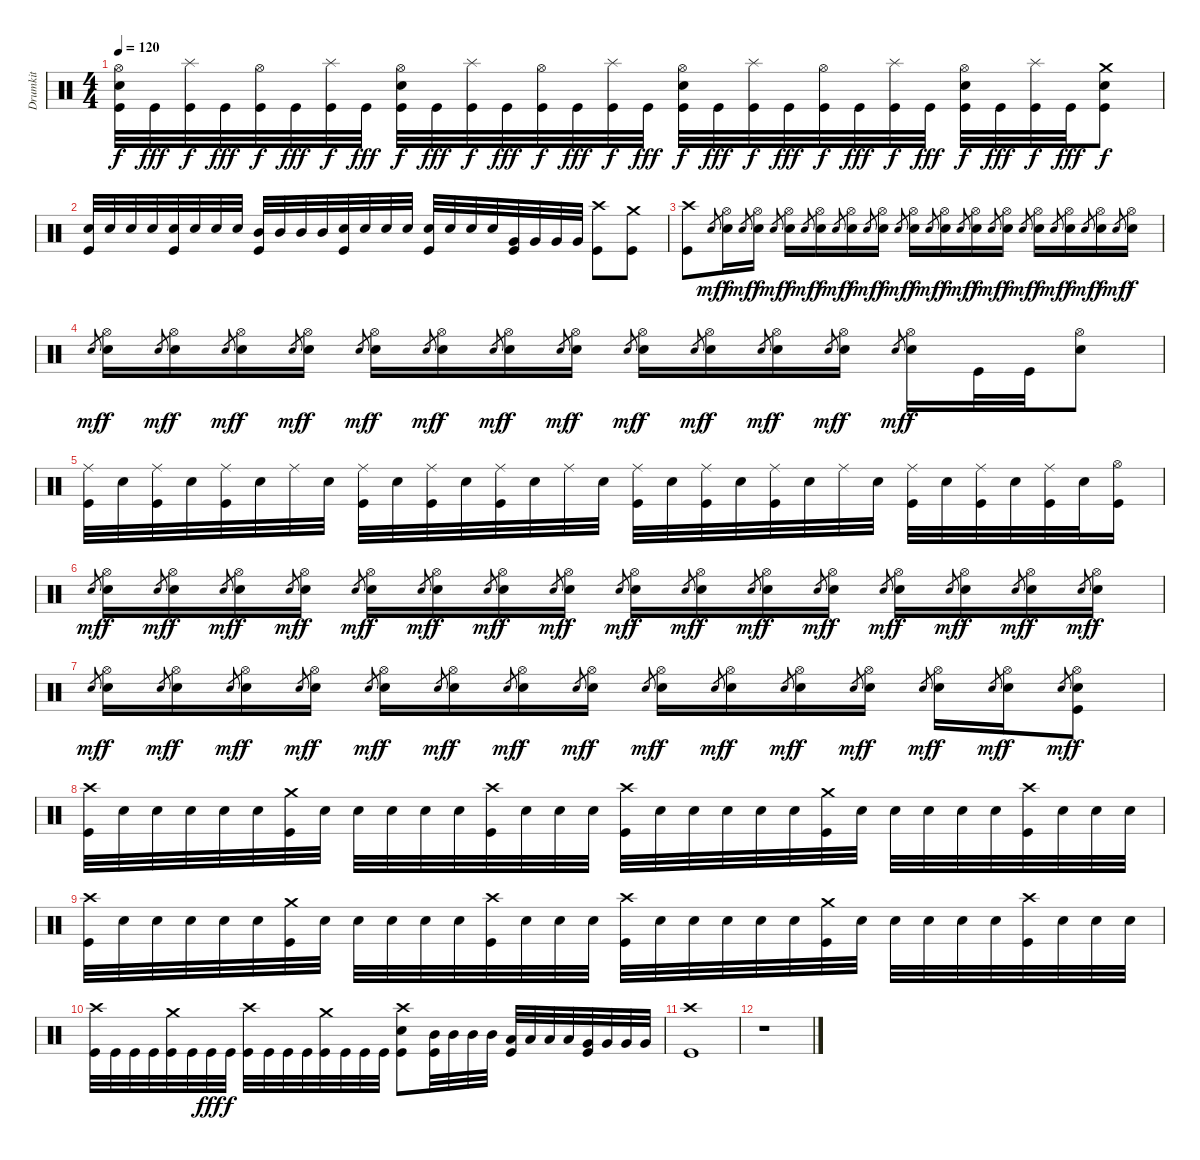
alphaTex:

\track ("Drumkit" "Drumkit") {instrument percussion}
\staff {score}
\articulation defaults
\ts (4 4)
\tempo 120
\clef neutral
\ks c
("Hi-Hat (open)" "Snare (hit) 2" "Kick (hit)").32{dy f} "Kick (hit)".32{dy fff} ("Splash (hit)" "Kick (hit)").32{dy f} "Kick (hit)".32{dy fff} ("Hi-Hat (open)" "Kick (hit)").32{dy f} "Kick (hit)".32{dy fff} ("Splash (hit)" "Kick (hit)").32{dy f} "Kick (hit)".32{dy fff} ("Hi-Hat (open)" "Snare (hit) 2" "Kick (hit)").32{dy f} "Kick (hit)".32{dy fff} ("Splash (hit)" "Kick (hit)").32{dy f} "Kick (hit)".32{dy fff} ("Hi-Hat (open)" "Kick (hit)").32{dy f} "Kick (hit)".32{dy fff} ("Splash (hit)" "Kick (hit)").32{dy f} "Kick (hit)".32{dy fff} ("Hi-Hat (open)" "Snare (hit) 2" "Kick (hit)").32{dy f} "Kick (hit)".32{dy fff} ("Splash (hit)" "Kick (hit)").32{dy f} "Kick (hit)".32{dy fff} ("Hi-Hat (open)" "Kick (hit)").32{dy f} "Kick (hit)".32{dy fff} ("Splash (hit)" "Kick (hit)").32{dy f} "Kick (hit)".32{dy fff} ("Hi-Hat (open)" "Snare (hit) 2" "Kick (hit)").32{dy f} "Kick (hit)".32{dy fff} ("Splash (hit)" "Kick (hit)").32{dy f} "Kick (hit)".32{dy fff} ("Crash medium (hit)" "Snare (hit) 2" "Kick (hit)").8{dy f} |
("Snare (hit) 2" "Kick (hit)").32 "Snare (hit) 2".32 "Snare (hit) 2".32 "Snare (hit) 2".32 ("Snare (hit) 2" "Kick (hit)").32 "Snare (hit) 2".32 "Snare (hit) 2".32 "Snare (hit) 2".32 ("Mid Tom (hit)" "Kick (hit)").32 "Mid Tom (hit)".32 "Mid Tom (hit)".32 "Mid Tom (hit)".32 ("Snare (hit) 2" "Kick (hit)").32 "Snare (hit) 2".32 "Snare (hit) 2".32 "Snare (hit) 2".32 ("Snare (hit) 2" "Kick (hit)").32 "Snare (hit) 2".32 "Snare (hit) 2".32 "Snare (hit) 2".32 ("Very Low Tom (hit)" "Kick (hit)").32 "Very Low Tom (hit)".32 "Very Low Tom (hit)".32 "Very Low Tom (hit)".32 ("Crash high (hit)" "Kick (hit)").8 ("Crash medium (hit)" "Kick (hit)").8 |
("Crash high (hit)" "Kick (hit)").8 "Snare (hit)".8{gr dy mf} ("Hi-Hat (open)" "Snare (hit) 2").16{dy f} "Snare (hit)".8{gr dy mf} ("Hi-Hat (open)" "Snare (hit) 2").16{dy f} "Snare (hit)".8{gr dy mf} ("Hi-Hat (open)" "Snare (hit) 2").16{dy f} "Snare (hit)".8{gr dy mf} ("Hi-Hat (open)" "Snare (hit) 2").16{dy f} "Snare (hit)".8{gr dy mf} ("Hi-Hat (open)" "Snare (hit) 2").16{dy f} "Snare (hit)".8{gr dy mf} ("Hi-Hat (open)" "Snare (hit) 2").16{dy f} "Snare (hit)".8{gr dy mf} ("Hi-Hat (open)" "Snare (hit) 2").16{dy f} "Snare (hit)".8{gr dy mf} ("Hi-Hat (open)" "Snare (hit) 2").16{dy f} "Snare (hit)".8{gr dy mf} ("Hi-Hat (open)" "Snare (hit) 2").16{dy f} "Snare (hit)".8{gr dy mf} ("Hi-Hat (open)" "Snare (hit) 2").16{dy f} "Snare (hit)".8{gr dy mf} ("Hi-Hat (open)" "Snare (hit) 2").16{dy f} "Snare (hit)".8{gr dy mf} ("Hi-Hat (open)" "Snare (hit) 2").16{dy f} "Snare (hit)".8{gr dy mf} ("Hi-Hat (open)" "Snare (hit) 2").16{dy f} "Snare (hit)".8{gr dy mf} ("Hi-Hat (open)" "Snare (hit) 2").16{dy f} |
"Snare (hit)".8{gr dy mf} ("Hi-Hat (open)" "Snare (hit) 2").16{dy f} "Snare (hit)".8{gr dy mf} ("Hi-Hat (open)" "Snare (hit) 2").16{dy f} "Snare (hit)".8{gr dy mf} ("Hi-Hat (open)" "Snare (hit) 2").16{dy f} "Snare (hit)".8{gr dy mf} ("Hi-Hat (open)" "Snare (hit) 2").16{dy f} "Snare (hit)".8{gr dy mf} ("Hi-Hat (open)" "Snare (hit) 2").16{dy f} "Snare (hit)".8{gr dy mf} ("Hi-Hat (open)" "Snare (hit) 2").16{dy f} "Snare (hit)".8{gr dy mf} ("Hi-Hat (open)" "Snare (hit) 2").16{dy f} "Snare (hit)".8{gr dy mf} ("Hi-Hat (open)" "Snare (hit) 2").16{dy f} "Snare (hit)".8{gr dy mf} ("Hi-Hat (open)" "Snare (hit) 2").16{dy f} "Snare (hit)".8{gr dy mf} ("Hi-Hat (open)" "Snare (hit) 2").16{dy f} "Snare (hit)".8{gr dy mf} ("Hi-Hat (open)" "Snare (hit) 2").16{dy f} "Snare (hit)".8{gr dy mf} ("Hi-Hat (open)" "Snare (hit) 2").16{dy f} "Snare (hit)".8{gr dy mf} ("Hi-Hat (open)" "Snare (hit) 2").16{dy f} "Kick (hit)".32 "Kick (hit)".32 ("Hi-Hat (open)" "Snare (hit) 2").8 |
("Ride (middle)" "Kick (hit)").32 "Snare (hit) 2".32 ("Ride (middle)" "Kick (hit)").32 "Snare (hit) 2".32 ("Ride (middle)" "Kick (hit)").32 "Snare (hit) 2".32 "Ride (middle)".32 "Snare (hit) 2".32 ("Ride (middle)" "Kick (hit)").32 "Snare (hit) 2".32 ("Ride (middle)" "Kick (hit)").32 "Snare (hit) 2".32 ("Ride (middle)" "Kick (hit)").32 "Snare (hit) 2".32 "Ride (middle)".32 "Snare (hit) 2".32 ("Ride (middle)" "Kick (hit)").32 "Snare (hit) 2".32 ("Ride (middle)" "Kick (hit)").32 "Snare (hit) 2".32 ("Ride (middle)" "Kick (hit)").32 "Snare (hit) 2".32 "Ride (middle)".32 "Snare (hit) 2".32 ("Ride (middle)" "Kick (hit)").32 "Snare (hit) 2".32 ("Ride (middle)" "Kick (hit)").32 "Snare (hit) 2".32 ("Ride (middle)" "Kick (hit)").32 "Snare (hit) 2".32 ("Hi-Hat (open)" "Kick (hit)").16 |
"Snare (hit)".8{gr dy mf} ("Hi-Hat (open)" "Snare (hit) 2").16{dy f} "Snare (hit)".8{gr dy mf} ("Hi-Hat (open)" "Snare (hit) 2").16{dy f} "Snare (hit)".8{gr dy mf} ("Hi-Hat (open)" "Snare (hit) 2").16{dy f} "Snare (hit)".8{gr dy mf} ("Hi-Hat (open)" "Snare (hit) 2").16{dy f} "Snare (hit)".8{gr dy mf} ("Hi-Hat (open)" "Snare (hit) 2").16{dy f} "Snare (hit)".8{gr dy mf} ("Hi-Hat (open)" "Snare (hit) 2").16{dy f} "Snare (hit)".8{gr dy mf} ("Hi-Hat (open)" "Snare (hit) 2").16{dy f} "Snare (hit)".8{gr dy mf} ("Hi-Hat (open)" "Snare (hit) 2").16{dy f} "Snare (hit)".8{gr dy mf} ("Hi-Hat (open)" "Snare (hit) 2").16{dy f} "Snare (hit)".8{gr dy mf} ("Hi-Hat (open)" "Snare (hit) 2").16{dy f} "Snare (hit)".8{gr dy mf} ("Hi-Hat (open)" "Snare (hit) 2").16{dy f} "Snare (hit)".8{gr dy mf} ("Hi-Hat (open)" "Snare (hit) 2").16{dy f} "Snare (hit)".8{gr dy mf} ("Hi-Hat (open)" "Snare (hit) 2").16{dy f} "Snare (hit)".8{gr dy mf} ("Hi-Hat (open)" "Snare (hit) 2").16{dy f} "Snare (hit)".8{gr dy mf} ("Hi-Hat (open)" "Snare (hit) 2").16{dy f} "Snare (hit)".8{gr dy mf} ("Hi-Hat (open)" "Snare (hit) 2").16{dy f} |
"Snare (hit)".8{gr dy mf} ("Hi-Hat (open)" "Snare (hit) 2").16{dy f} "Snare (hit)".8{gr dy mf} ("Hi-Hat (open)" "Snare (hit) 2").16{dy f} "Snare (hit)".8{gr dy mf} ("Hi-Hat (open)" "Snare (hit) 2").16{dy f} "Snare (hit)".8{gr dy mf} ("Hi-Hat (open)" "Snare (hit) 2").16{dy f} "Snare (hit)".8{gr dy mf} ("Hi-Hat (open)" "Snare (hit) 2").16{dy f} "Snare (hit)".8{gr dy mf} ("Hi-Hat (open)" "Snare (hit) 2").16{dy f} "Snare (hit)".8{gr dy mf} ("Hi-Hat (open)" "Snare (hit) 2").16{dy f} "Snare (hit)".8{gr dy mf} ("Hi-Hat (open)" "Snare (hit) 2").16{dy f} "Snare (hit)".8{gr dy mf} ("Hi-Hat (open)" "Snare (hit) 2").16{dy f} "Snare (hit)".8{gr dy mf} ("Hi-Hat (open)" "Snare (hit) 2").16{dy f} "Snare (hit)".8{gr dy mf} ("Hi-Hat (open)" "Snare (hit) 2").16{dy f} "Snare (hit)".8{gr dy mf} ("Hi-Hat (open)" "Snare (hit) 2").16{dy f} "Snare (hit)".8{gr dy mf} ("Hi-Hat (open)" "Snare (hit) 2").16{dy f} "Snare (hit)".8{gr dy mf} ("Hi-Hat (open)" "Snare (hit) 2").16{dy f} "Snare (hit)".8{gr dy mf} ("Hi-Hat (open)" "Snare (hit) 2" "Kick (hit)").8{dy f} |
("Crash high (hit)" "Kick (hit)").32 "Snare (hit) 2".32 "Snare (hit) 2".32 "Snare (hit) 2".32 "Snare (hit) 2".32 "Snare (hit) 2".32 ("Crash medium (hit)" "Kick (hit)").32 "Snare (hit) 2".32 "Snare (hit) 2".32 "Snare (hit) 2".32 "Snare (hit) 2".32 "Snare (hit) 2".32 ("Crash high (hit)" "Kick (hit)").32 "Snare (hit) 2".32 "Snare (hit) 2".32 "Snare (hit) 2".32 ("Crash high (hit)" "Kick (hit)").32 "Snare (hit) 2".32 "Snare (hit) 2".32 "Snare (hit) 2".32 "Snare (hit) 2".32 "Snare (hit) 2".32 ("Crash medium (hit)" "Kick (hit)").32 "Snare (hit) 2".32 "Snare (hit) 2".32 "Snare (hit) 2".32 "Snare (hit) 2".32 "Snare (hit) 2".32 ("Crash high (hit)" "Kick (hit)").32 "Snare (hit) 2".32 "Snare (hit) 2".32 "Snare (hit) 2".32 |
("Crash high (hit)" "Kick (hit)").32 "Snare (hit) 2".32 "Snare (hit) 2".32 "Snare (hit) 2".32 "Snare (hit) 2".32 "Snare (hit) 2".32 ("Crash medium (hit)" "Kick (hit)").32 "Snare (hit) 2".32 "Snare (hit) 2".32 "Snare (hit) 2".32 "Snare (hit) 2".32 "Snare (hit) 2".32 ("Crash high (hit)" "Kick (hit)").32 "Snare (hit) 2".32 "Snare (hit) 2".32 "Snare (hit) 2".32 ("Crash high (hit)" "Kick (hit)").32 "Snare (hit) 2".32 "Snare (hit) 2".32 "Snare (hit) 2".32 "Snare (hit) 2".32 "Snare (hit) 2".32 ("Crash medium (hit)" "Kick (hit)").32 "Snare (hit) 2".32 "Snare (hit) 2".32 "Snare (hit) 2".32 "Snare (hit) 2".32 "Snare (hit) 2".32 ("Crash high (hit)" "Kick (hit)").32 "Snare (hit) 2".32 "Snare (hit) 2".32 "Snare (hit) 2".32 |
("Crash high (hit)" "Kick (hit)").32 "Kick (hit)".32 "Kick (hit)".32 "Kick (hit)".32 ("Crash medium (hit)" "Kick (hit)").32 "Kick (hit)".32 "Kick (hit)".32{dy fff} "Kick (hit)".32{dy f} ("Crash high (hit)" "Kick (hit)").32 "Kick (hit)".32 "Kick (hit)".32 "Kick (hit)".32 ("Crash medium (hit)" "Kick (hit)").32 "Kick (hit)".32 "Kick (hit)".32 "Kick (hit)".32 ("Crash high (hit)" "Snare (hit) 2" "Kick (hit)").8 ("Mid Tom (hit)" "Kick (hit)").32 "Mid Tom (hit)".32 "Mid Tom (hit)".32 "Mid Tom (hit)".32 ("Low Tom (hit)" "Kick (hit)").32 "Low Tom (hit)".32 "Low Tom (hit)".32 "Low Tom (hit)".32 ("Very Low Tom (hit)" "Kick (hit)").32 "Very Low Tom (hit)".32 "Very Low Tom (hit)".32 "Very Low Tom (hit)".32 |
("Crash high (hit)" "Kick (hit)").1 |
r.1
